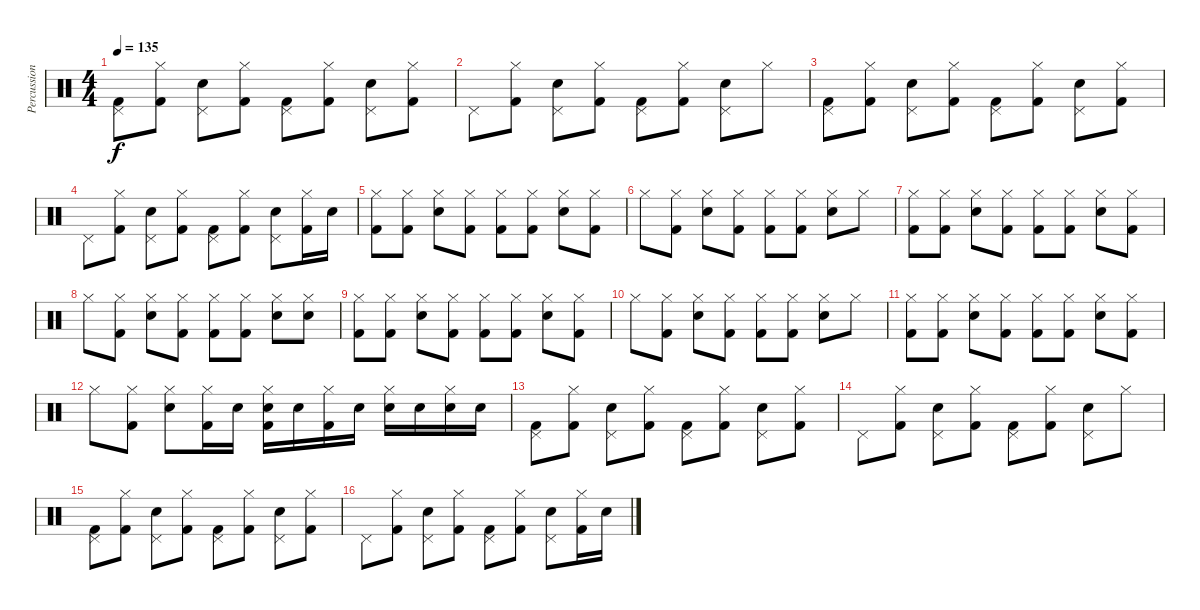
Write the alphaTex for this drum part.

\track ("Percussions" "Percussion") {instrument percussion}
\staff {score}
\articulation defaults
\ts (4 4)
\tempo 135
\clef neutral
\ks c
("Pedal Hi-Hat (hit)" "Kick (hit) 2").8{dy f} ("Hi-Hat (closed)" "Kick (hit) 2").8 ("Pedal Hi-Hat (hit)" "Electric Snare (hit)").8 ("Hi-Hat (closed)" "Kick (hit) 2").8 ("Pedal Hi-Hat (hit)" "Kick (hit) 2").8 ("Hi-Hat (closed)" "Kick (hit) 2").8 ("Pedal Hi-Hat (hit)" "Electric Snare (hit)").8 ("Hi-Hat (closed)" "Kick (hit) 2").8 |
"Pedal Hi-Hat (hit)".8 ("Hi-Hat (closed)" "Kick (hit) 2").8 ("Pedal Hi-Hat (hit)" "Electric Snare (hit)").8 ("Hi-Hat (closed)" "Kick (hit) 2").8 ("Pedal Hi-Hat (hit)" "Kick (hit) 2").8 ("Hi-Hat (closed)" "Kick (hit) 2").8 ("Pedal Hi-Hat (hit)" "Electric Snare (hit)").8 "Hi-Hat (closed)".8 |
("Pedal Hi-Hat (hit)" "Kick (hit) 2").8 ("Hi-Hat (closed)" "Kick (hit) 2").8 ("Pedal Hi-Hat (hit)" "Electric Snare (hit)").8 ("Hi-Hat (closed)" "Kick (hit) 2").8 ("Pedal Hi-Hat (hit)" "Kick (hit) 2").8 ("Hi-Hat (closed)" "Kick (hit) 2").8 ("Pedal Hi-Hat (hit)" "Electric Snare (hit)").8 ("Hi-Hat (closed)" "Kick (hit) 2").8 |
"Pedal Hi-Hat (hit)".8 ("Hi-Hat (closed)" "Kick (hit) 2").8 ("Pedal Hi-Hat (hit)" "Electric Snare (hit)").8 ("Hi-Hat (closed)" "Kick (hit) 2").8 ("Pedal Hi-Hat (hit)" "Kick (hit) 2").8 ("Hi-Hat (closed)" "Kick (hit) 2").8 ("Pedal Hi-Hat (hit)" "Electric Snare (hit)").8 ("Hi-Hat (closed)" "Kick (hit) 2").16 "Electric Snare (hit)".16 |
("Hi-Hat (closed)" "Kick (hit) 2").8 ("Hi-Hat (closed)" "Kick (hit) 2").8 ("Hi-Hat (closed)" "Electric Snare (hit)").8 ("Hi-Hat (closed)" "Kick (hit) 2").8 ("Hi-Hat (closed)" "Kick (hit) 2").8 ("Hi-Hat (closed)" "Kick (hit) 2").8 ("Hi-Hat (closed)" "Electric Snare (hit)").8 ("Hi-Hat (closed)" "Kick (hit) 2").8 |
"Hi-Hat (closed)".8 ("Hi-Hat (closed)" "Kick (hit) 2").8 ("Hi-Hat (closed)" "Electric Snare (hit)").8 ("Hi-Hat (closed)" "Kick (hit) 2").8 ("Hi-Hat (closed)" "Kick (hit) 2").8 ("Hi-Hat (closed)" "Kick (hit) 2").8 ("Hi-Hat (closed)" "Electric Snare (hit)").8 "Hi-Hat (closed)".8 |
("Hi-Hat (closed)" "Kick (hit) 2").8 ("Hi-Hat (closed)" "Kick (hit) 2").8 ("Hi-Hat (closed)" "Electric Snare (hit)").8 ("Hi-Hat (closed)" "Kick (hit) 2").8 ("Hi-Hat (closed)" "Kick (hit) 2").8 ("Hi-Hat (closed)" "Kick (hit) 2").8 ("Hi-Hat (closed)" "Electric Snare (hit)").8 ("Hi-Hat (closed)" "Kick (hit) 2").8 |
"Hi-Hat (closed)".8 ("Hi-Hat (closed)" "Kick (hit) 2").8 ("Hi-Hat (closed)" "Electric Snare (hit)").8 ("Hi-Hat (closed)" "Kick (hit) 2").8 ("Hi-Hat (closed)" "Kick (hit) 2").8 ("Hi-Hat (closed)" "Kick (hit) 2").8 ("Hi-Hat (closed)" "Electric Snare (hit)").8 ("Hi-Hat (closed)" "Electric Snare (hit)").8 |
("Hi-Hat (closed)" "Kick (hit) 2").8 ("Hi-Hat (closed)" "Kick (hit) 2").8 ("Hi-Hat (closed)" "Electric Snare (hit)").8 ("Hi-Hat (closed)" "Kick (hit) 2").8 ("Hi-Hat (closed)" "Kick (hit) 2").8 ("Hi-Hat (closed)" "Kick (hit) 2").8 ("Hi-Hat (closed)" "Electric Snare (hit)").8 ("Hi-Hat (closed)" "Kick (hit) 2").8 |
"Hi-Hat (closed)".8 ("Hi-Hat (closed)" "Kick (hit) 2").8 ("Hi-Hat (closed)" "Electric Snare (hit)").8 ("Hi-Hat (closed)" "Kick (hit) 2").8 ("Hi-Hat (closed)" "Kick (hit) 2").8 ("Hi-Hat (closed)" "Kick (hit) 2").8 ("Hi-Hat (closed)" "Electric Snare (hit)").8 "Hi-Hat (closed)".8 |
("Hi-Hat (closed)" "Kick (hit) 2").8 ("Hi-Hat (closed)" "Kick (hit) 2").8 ("Hi-Hat (closed)" "Electric Snare (hit)").8 ("Hi-Hat (closed)" "Kick (hit) 2").8 ("Hi-Hat (closed)" "Kick (hit) 2").8 ("Hi-Hat (closed)" "Kick (hit) 2").8 ("Hi-Hat (closed)" "Electric Snare (hit)").8 ("Hi-Hat (closed)" "Kick (hit) 2").8 |
"Hi-Hat (closed)".8 ("Hi-Hat (closed)" "Kick (hit) 2").8 ("Hi-Hat (closed)" "Electric Snare (hit)").8 ("Hi-Hat (closed)" "Kick (hit) 2").16 "Electric Snare (hit)".16 ("Hi-Hat (closed)" "Electric Snare (hit)" "Kick (hit) 2").16 "Electric Snare (hit)".16 ("Hi-Hat (closed)" "Kick (hit) 2").16 "Electric Snare (hit)".16 ("Hi-Hat (closed)" "Electric Snare (hit)").16 "Electric Snare (hit)".16 ("Hi-Hat (closed)" "Electric Snare (hit)").16 "Electric Snare (hit)".16 |
("Pedal Hi-Hat (hit)" "Kick (hit) 2").8 ("Hi-Hat (closed)" "Kick (hit) 2").8 ("Pedal Hi-Hat (hit)" "Electric Snare (hit)").8 ("Hi-Hat (closed)" "Kick (hit) 2").8 ("Pedal Hi-Hat (hit)" "Kick (hit) 2").8 ("Hi-Hat (closed)" "Kick (hit) 2").8 ("Pedal Hi-Hat (hit)" "Electric Snare (hit)").8 ("Hi-Hat (closed)" "Kick (hit) 2").8 |
"Pedal Hi-Hat (hit)".8 ("Hi-Hat (closed)" "Kick (hit) 2").8 ("Pedal Hi-Hat (hit)" "Electric Snare (hit)").8 ("Hi-Hat (closed)" "Kick (hit) 2").8 ("Pedal Hi-Hat (hit)" "Kick (hit) 2").8 ("Hi-Hat (closed)" "Kick (hit) 2").8 ("Pedal Hi-Hat (hit)" "Electric Snare (hit)").8 "Hi-Hat (closed)".8 |
("Pedal Hi-Hat (hit)" "Kick (hit) 2").8 ("Hi-Hat (closed)" "Kick (hit) 2").8 ("Pedal Hi-Hat (hit)" "Electric Snare (hit)").8 ("Hi-Hat (closed)" "Kick (hit) 2").8 ("Pedal Hi-Hat (hit)" "Kick (hit) 2").8 ("Hi-Hat (closed)" "Kick (hit) 2").8 ("Pedal Hi-Hat (hit)" "Electric Snare (hit)").8 ("Hi-Hat (closed)" "Kick (hit) 2").8 |
"Pedal Hi-Hat (hit)".8 ("Hi-Hat (closed)" "Kick (hit) 2").8 ("Pedal Hi-Hat (hit)" "Electric Snare (hit)").8 ("Hi-Hat (closed)" "Kick (hit) 2").8 ("Pedal Hi-Hat (hit)" "Kick (hit) 2").8 ("Hi-Hat (closed)" "Kick (hit) 2").8 ("Pedal Hi-Hat (hit)" "Electric Snare (hit)").8 ("Hi-Hat (closed)" "Kick (hit) 2").16 "Electric Snare (hit)".16
